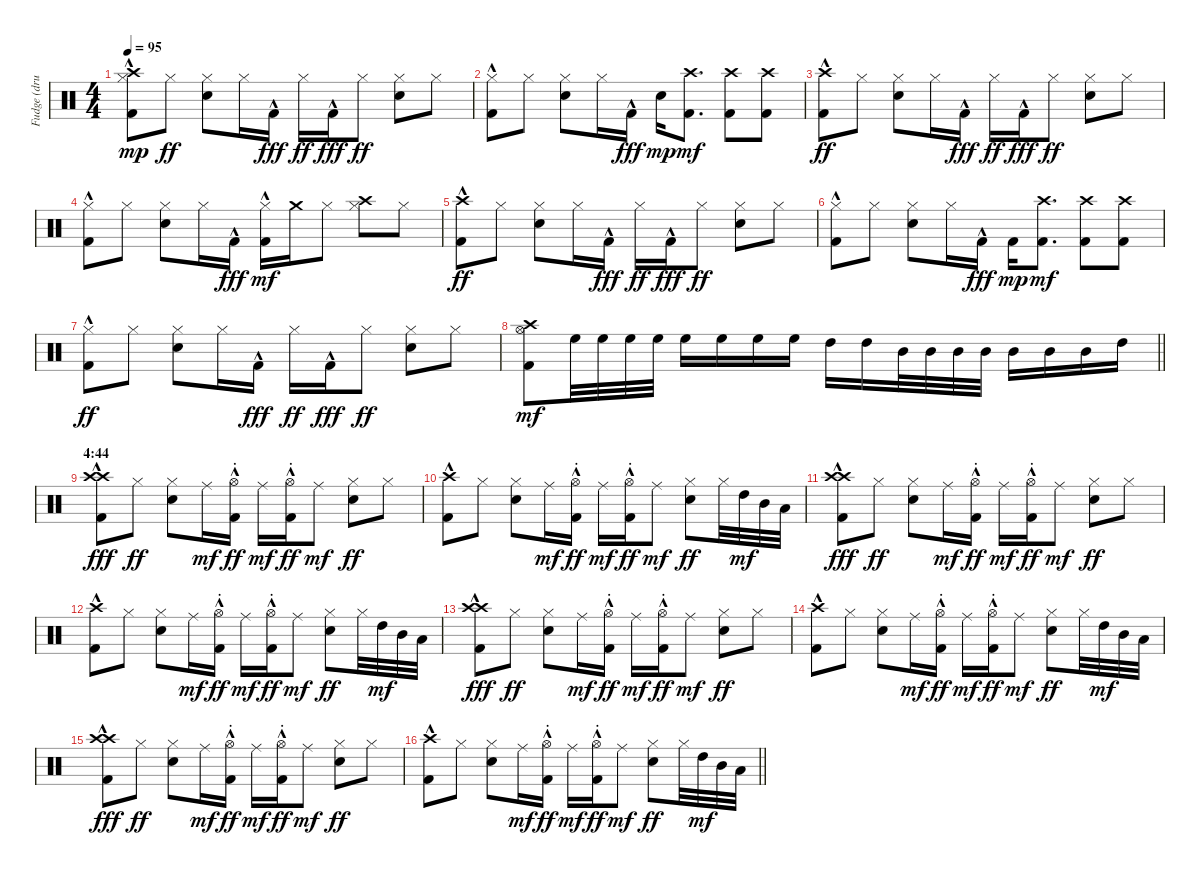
\track ("Fudge (drums)" "Fudge (dru") {instrument percussion}
\staff {score}
\articulation defaults
\ts (4 4)
\tempo 95
\clef neutral
\ks c
("Kick (hit) 2"{hac} "Hi-Hat (closed)" "Crash high (hit)").8{dy mp} "Hi-Hat (closed)".8{dy ff} ("Electric Snare (hit)" "Hi-Hat (closed)").8 "Hi-Hat (closed)".16 "Kick (hit) 2"{hac}.16{dy fff} "Hi-Hat (closed)".16{dy ff} "Kick (hit) 2"{hac}.16{dy fff} "Hi-Hat (closed)".8{dy ff} ("Electric Snare (hit)" "Hi-Hat (closed)").8 "Hi-Hat (closed)".8 |
("Kick (hit) 2"{hac} "Hi-Hat (closed)").8 "Hi-Hat (closed)".8 ("Electric Snare (hit)" "Hi-Hat (closed)").8 "Hi-Hat (closed)".16 "Kick (hit) 2"{hac}.16{dy fff} "Electric Snare (hit)".16{dy mp} ("Kick (hit) 2" "Crash high (hit)").8{d dy mf} ("Kick (hit) 2" "Crash high (hit)").8 ("Kick (hit) 2" "Crash high (hit)").8 |
("Kick (hit) 2"{hac} "Crash high (hit)").8{dy ff} "Hi-Hat (closed)".8 ("Electric Snare (hit)" "Hi-Hat (closed)").8 "Hi-Hat (closed)".16 "Kick (hit) 2"{hac}.16{dy fff} "Hi-Hat (closed)".16{dy ff} "Kick (hit) 2"{hac}.16{dy fff} "Hi-Hat (closed)".8{dy ff} ("Electric Snare (hit)" "Hi-Hat (closed)").8 "Hi-Hat (closed)".8 |
("Kick (hit) 2"{hac} "Hi-Hat (closed)").8 "Hi-Hat (closed)".8 ("Electric Snare (hit)" "Hi-Hat (closed)").8 "Hi-Hat (closed)".16 "Kick (hit) 2"{hac}.16{dy fff} ("Kick (hit) 2"{hac} "Hi-Hat (closed)").16{dy mf} "Crash medium (hit)".16 "Hi-Hat (closed)".8 ("Crash high (hit)" "Hi-Hat (closed)").8 "Hi-Hat (closed)".8 |
("Kick (hit) 2"{hac} "Crash high (hit)").8{dy ff} "Hi-Hat (closed)".8 ("Electric Snare (hit)" "Hi-Hat (closed)").8 "Hi-Hat (closed)".16 "Kick (hit) 2"{hac}.16{dy fff} "Hi-Hat (closed)".16{dy ff} "Kick (hit) 2"{hac}.16{dy fff} "Hi-Hat (closed)".8{dy ff} ("Electric Snare (hit)" "Hi-Hat (closed)").8 "Hi-Hat (closed)".8 |
("Kick (hit) 2"{hac} "Hi-Hat (closed)").8 "Hi-Hat (closed)".8 ("Electric Snare (hit)" "Hi-Hat (closed)").8 "Hi-Hat (closed)".16 "Kick (hit) 2"{hac}.16{dy fff} "Kick (hit) 2".16{dy mp} ("Kick (hit) 2" "Crash high (hit)").8{d dy mf} ("Kick (hit) 2" "Crash high (hit)").8 ("Kick (hit) 2" "Crash high (hit)").8 |
("Kick (hit) 2"{hac} "Hi-Hat (closed)").8{dy ff} "Hi-Hat (closed)".8 ("Electric Snare (hit)" "Hi-Hat (closed)").8 "Hi-Hat (closed)".16 "Kick (hit) 2"{hac}.16{dy fff} "Hi-Hat (closed)".16{dy ff} "Kick (hit) 2"{hac}.16{dy fff} "Hi-Hat (closed)".8{dy ff} ("Electric Snare (hit)" "Hi-Hat (closed)").8 "Hi-Hat (closed)".8 |
\barLineRight lightlight
("Kick (hit) 2" "Hi-Hat (open)" "Crash high (hit)").8{dy mf} "High Floor Tom (hit)".32 "High Floor Tom (hit)".32 "High Floor Tom (hit)".32 "High Floor Tom (hit)".32 "High Floor Tom (hit)".16 "High Floor Tom (hit)".16 "High Floor Tom (hit)".16 "High Floor Tom (hit)".16 "High Tom (hit)".16 "High Tom (hit)".16 "Mid Tom (hit)".32 "Mid Tom (hit)".32 "Mid Tom (hit)".32 "Mid Tom (hit)".32 "Mid Tom (hit)".16 "Mid Tom (hit)".16 "Mid Tom (hit)".16 "High Tom (hit)".16 |
\section ("" "4:44")
("Kick (hit) 2"{hac} "Crash high (hit)" "Crash high (hit)").8{dy fff} "Hi-Hat (closed)".8{dy ff} ("Electric Snare (hit)" "Hi-Hat (closed)").8 "Ride (middle)".16{dy mf} ("Kick (hit) 2"{hac} "Hi-Hat (open)"{hac st}).16{dy ff} "Ride (middle)".16{dy mf} ("Kick (hit) 2"{hac} "Hi-Hat (open)"{hac st}).16{dy ff} "Ride (middle)".8{dy mf} ("Electric Snare (hit)" "Hi-Hat (closed)").8{dy ff} "Hi-Hat (closed)".8 |
("Kick (hit) 2"{hac} "Crash high (hit)").8 "Hi-Hat (closed)".8 ("Electric Snare (hit)" "Hi-Hat (closed)").8 "Ride (middle)".16{dy mf} ("Kick (hit) 2"{hac} "Hi-Hat (open)"{hac st}).16{dy ff} "Ride (middle)".16{dy mf} ("Kick (hit) 2"{hac} "Hi-Hat (open)"{hac st}).16{dy ff} "Ride (middle)".8{dy mf} ("Electric Snare (hit)" "Hi-Hat (closed)").8{dy ff} "Hi-Hat (closed)".32 "High Tom (hit)".32{dy mf} "Mid Tom (hit)".32 "Low Tom (hit)".32 |
("Kick (hit) 2"{hac} "Crash high (hit)" "Crash high (hit)").8{dy fff} "Hi-Hat (closed)".8{dy ff} ("Electric Snare (hit)" "Hi-Hat (closed)").8 "Ride (middle)".16{dy mf} ("Kick (hit) 2"{hac} "Hi-Hat (open)"{hac st}).16{dy ff} "Ride (middle)".16{dy mf} ("Kick (hit) 2"{hac} "Hi-Hat (open)"{hac st}).16{dy ff} "Ride (middle)".8{dy mf} ("Electric Snare (hit)" "Hi-Hat (closed)").8{dy ff} "Hi-Hat (closed)".8 |
("Kick (hit) 2"{hac} "Crash high (hit)").8 "Hi-Hat (closed)".8 ("Electric Snare (hit)" "Hi-Hat (closed)").8 "Ride (middle)".16{dy mf} ("Kick (hit) 2"{hac} "Hi-Hat (open)"{hac st}).16{dy ff} "Ride (middle)".16{dy mf} ("Kick (hit) 2"{hac} "Hi-Hat (open)"{hac st}).16{dy ff} "Ride (middle)".8{dy mf} ("Electric Snare (hit)" "Hi-Hat (closed)").8{dy ff} "Hi-Hat (closed)".32 "High Tom (hit)".32{dy mf} "Mid Tom (hit)".32 "Low Tom (hit)".32 |
("Kick (hit) 2"{hac} "Crash high (hit)" "Crash high (hit)").8{dy fff} "Hi-Hat (closed)".8{dy ff} ("Electric Snare (hit)" "Hi-Hat (closed)").8 "Ride (middle)".16{dy mf} ("Kick (hit) 2"{hac} "Hi-Hat (open)"{hac st}).16{dy ff} "Ride (middle)".16{dy mf} ("Kick (hit) 2"{hac} "Hi-Hat (open)"{hac st}).16{dy ff} "Ride (middle)".8{dy mf} ("Electric Snare (hit)" "Hi-Hat (closed)").8{dy ff} "Hi-Hat (closed)".8 |
("Kick (hit) 2"{hac} "Crash high (hit)").8 "Hi-Hat (closed)".8 ("Electric Snare (hit)" "Hi-Hat (closed)").8 "Ride (middle)".16{dy mf} ("Kick (hit) 2"{hac} "Hi-Hat (open)"{hac st}).16{dy ff} "Ride (middle)".16{dy mf} ("Kick (hit) 2"{hac} "Hi-Hat (open)"{hac st}).16{dy ff} "Ride (middle)".8{dy mf} ("Electric Snare (hit)" "Hi-Hat (closed)").8{dy ff} "Hi-Hat (closed)".32 "High Tom (hit)".32{dy mf} "Mid Tom (hit)".32 "Low Tom (hit)".32 |
("Kick (hit) 2"{hac} "Crash high (hit)" "Crash high (hit)").8{dy fff} "Hi-Hat (closed)".8{dy ff} ("Electric Snare (hit)" "Hi-Hat (closed)").8 "Ride (middle)".16{dy mf} ("Kick (hit) 2"{hac} "Hi-Hat (open)"{hac st}).16{dy ff} "Ride (middle)".16{dy mf} ("Kick (hit) 2"{hac} "Hi-Hat (open)"{hac st}).16{dy ff} "Ride (middle)".8{dy mf} ("Electric Snare (hit)" "Hi-Hat (closed)").8{dy ff} "Hi-Hat (closed)".8 |
\barLineRight lightlight
("Kick (hit) 2"{hac} "Crash high (hit)").8 "Hi-Hat (closed)".8 ("Electric Snare (hit)" "Hi-Hat (closed)").8 "Ride (middle)".16{dy mf} ("Kick (hit) 2"{hac} "Hi-Hat (open)"{hac st}).16{dy ff} "Ride (middle)".16{dy mf} ("Kick (hit) 2"{hac} "Hi-Hat (open)"{hac st}).16{dy ff} "Ride (middle)".8{dy mf} ("Electric Snare (hit)" "Hi-Hat (closed)").8{dy ff} "Hi-Hat (closed)".32 "High Tom (hit)".32{dy mf} "Mid Tom (hit)".32 "Low Tom (hit)".32
